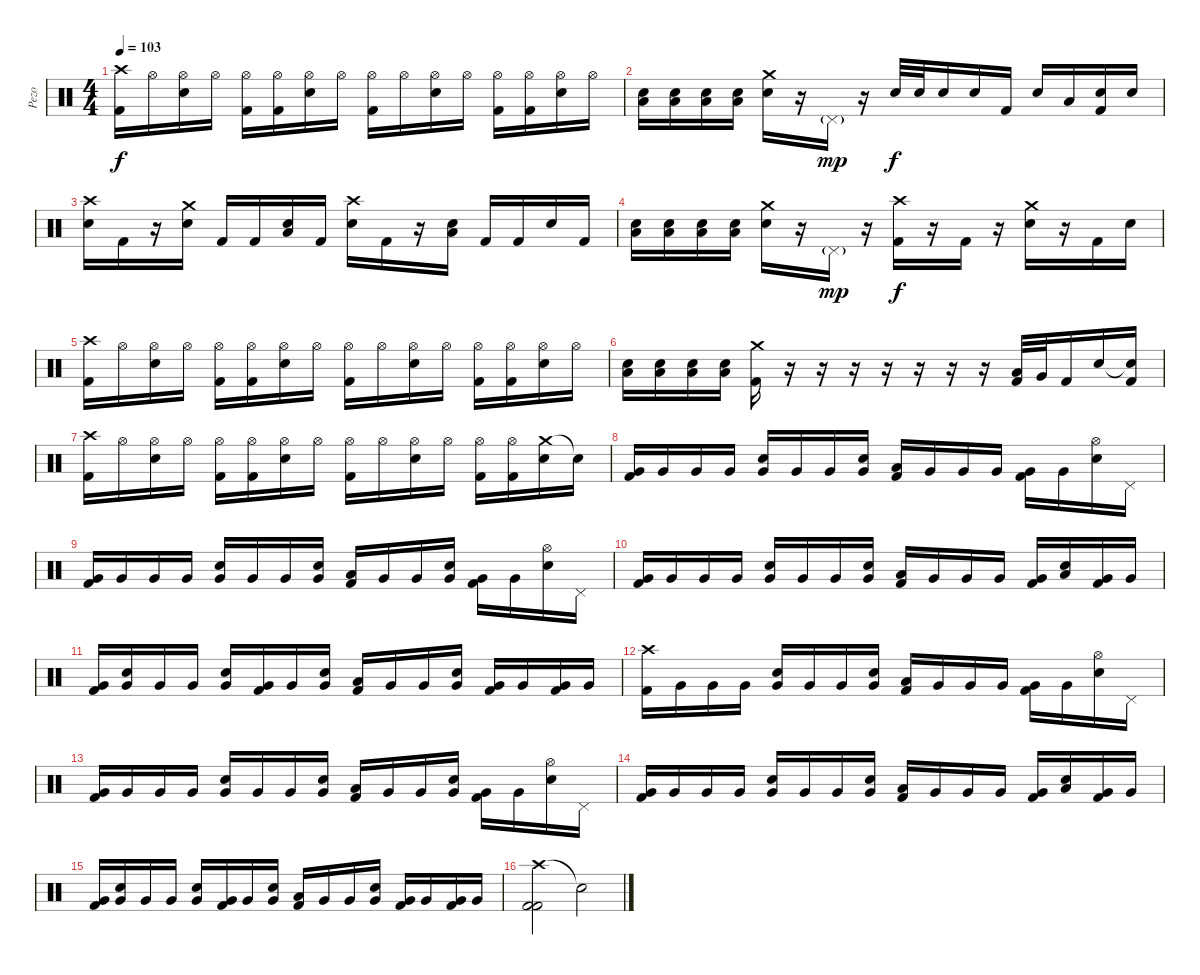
\track ("Pezo" "Pezo") {instrument percussion}
\staff {score}
\articulation defaults
\ts (4 4)
\tempo 103
\clef neutral
\ks c
("Crash high (hit)" "Kick (hit) 2").16{dy f} "Hi-Hat (open)".16 ("Hi-Hat (open)" "Electric Snare (hit)").16 "Hi-Hat (open)".16 ("Hi-Hat (open)" "Kick (hit) 2").16 ("Hi-Hat (open)" "Kick (hit) 2").16 ("Hi-Hat (open)" "Electric Snare (hit)").16 "Hi-Hat (open)".16 ("Hi-Hat (open)" "Kick (hit) 2").16 "Hi-Hat (open)".16 ("Hi-Hat (open)" "Electric Snare (hit)").16 "Hi-Hat (open)".16 ("Hi-Hat (open)" "Kick (hit) 2").16 ("Hi-Hat (open)" "Kick (hit) 2").16 ("Hi-Hat (open)" "Electric Snare (hit)").16 "Hi-Hat (open)".16 |
("Low Floor Tom (hit)" "Electric Snare (hit)").16 ("Low Floor Tom (hit)" "Electric Snare (hit)").16 ("Low Floor Tom (hit)" "Electric Snare (hit)").16 ("Low Floor Tom (hit)" "Electric Snare (hit)").16 ("Crash medium (hit)" "Electric Snare (hit)").16 r.16 "Pedal Hi-Hat (hit)"{g}.16{dy mp} r.16 "Electric Snare (hit)".32{dy f} "Electric Snare (hit)".32 "Electric Snare (hit)".16 "Electric Snare (hit)".16 "Kick (hit) 2".16 "Electric Snare (hit)".16 "Low Tom (hit)".16 ("Electric Snare (hit)" "Kick (hit) 2").16 "Electric Snare (hit)".16 |
("Crash high (hit)" "Electric Snare (hit)").16 "Kick (hit) 2".16 r.16 ("Crash medium (hit)" "Electric Snare (hit)").16 "Kick (hit) 2".16 "Kick (hit) 2".16 ("Low Floor Tom (hit)" "Electric Snare (hit)").16 "Kick (hit) 2".16 ("Crash high (hit)" "Electric Snare (hit)").16 "Kick (hit) 2".16 r.16 ("Low Floor Tom (hit)" "Electric Snare (hit)").16 "Kick (hit) 2".16 "Kick (hit) 2".16 "Electric Snare (hit)".16 "Kick (hit) 2".16 |
("Low Floor Tom (hit)" "Electric Snare (hit)").16 ("Low Floor Tom (hit)" "Electric Snare (hit)").16 ("Low Floor Tom (hit)" "Electric Snare (hit)").16 ("Low Floor Tom (hit)" "Electric Snare (hit)").16 ("Crash medium (hit)" "Electric Snare (hit)").16 r.16 "Pedal Hi-Hat (hit)"{g}.16{dy mp} r.16 ("Crash high (hit)" "Kick (hit) 2").16{dy f} r.16 "Kick (hit) 2".16 r.16 ("Crash medium (hit)" "Electric Snare (hit)").16 r.16 "Kick (hit) 2".16 "Electric Snare (hit)".16 |
("Crash high (hit)" "Kick (hit) 2").16 "Hi-Hat (open)".16 ("Hi-Hat (open)" "Electric Snare (hit)").16 "Hi-Hat (open)".16 ("Hi-Hat (open)" "Kick (hit) 2").16 ("Hi-Hat (open)" "Kick (hit) 2").16 ("Hi-Hat (open)" "Electric Snare (hit)").16 "Hi-Hat (open)".16 ("Hi-Hat (open)" "Kick (hit) 2").16 "Hi-Hat (open)".16 ("Hi-Hat (open)" "Electric Snare (hit)").16 "Hi-Hat (open)".16 ("Hi-Hat (open)" "Kick (hit) 2").16 ("Hi-Hat (open)" "Kick (hit) 2").16 ("Hi-Hat (open)" "Electric Snare (hit)").16 "Hi-Hat (open)".16 |
("Low Floor Tom (hit)" "Electric Snare (hit)").16 ("Low Floor Tom (hit)" "Electric Snare (hit)").16 ("Low Floor Tom (hit)" "Electric Snare (hit)").16 ("Low Floor Tom (hit)" "Electric Snare (hit)").16 ("Crash medium (hit)" "Kick (hit) 2").16 r.16 r.16 r.16 r.16 r.16 r.16 r.16 ("Low Tom (hit)" "Kick (hit) 2").32 "Very Low Tom (hit)".32 "Kick (hit) 2".16 "Electric Snare (hit)".16 ("Snare (hit)"{t} "Kick (hit) 2").16 |
("Crash high (hit)" "Kick (hit) 2").16 "Hi-Hat (open)".16 ("Hi-Hat (open)" "Electric Snare (hit)").16 "Hi-Hat (open)".16 ("Hi-Hat (open)" "Kick (hit) 2").16 ("Hi-Hat (open)" "Kick (hit) 2").16 ("Hi-Hat (open)" "Electric Snare (hit)").16 "Hi-Hat (open)".16 ("Hi-Hat (open)" "Kick (hit) 2").16 "Hi-Hat (open)".16 ("Hi-Hat (open)" "Electric Snare (hit)").16 "Hi-Hat (open)".16 ("Hi-Hat (open)" "Kick (hit) 2").16 ("Hi-Hat (open)" "Kick (hit) 2").16 ("Crash medium (hit)" "Electric Snare (hit)").16 "Snare (hit)"{t}.16 |
("Very Low Tom (hit)" "Kick (hit) 2").16 "Very Low Tom (hit)".16 "Very Low Tom (hit)".16 "Very Low Tom (hit)".16 ("Very Low Tom (hit)" "Electric Snare (hit)").16 "Very Low Tom (hit)".16 "Very Low Tom (hit)".16 ("Very Low Tom (hit)" "Electric Snare (hit)").16 ("Low Tom (hit)" "Kick (hit) 2").16 "Very Low Tom (hit)".16 "Very Low Tom (hit)".16 "Very Low Tom (hit)".16 ("Very Low Tom (hit)" "Kick (hit) 2").16 "Very Low Tom (hit)".16 ("Hi-Hat (open)" "Electric Snare (hit)").16 "Pedal Hi-Hat (hit)".16 |
("Very Low Tom (hit)" "Kick (hit) 2").16 "Very Low Tom (hit)".16 "Very Low Tom (hit)".16 "Very Low Tom (hit)".16 ("Very Low Tom (hit)" "Electric Snare (hit)").16 "Very Low Tom (hit)".16 "Very Low Tom (hit)".16 ("Very Low Tom (hit)" "Electric Snare (hit)").16 ("Low Tom (hit)" "Kick (hit) 2").16 "Very Low Tom (hit)".16 "Very Low Tom (hit)".16 ("Very Low Tom (hit)" "Electric Snare (hit)").16 ("Very Low Tom (hit)" "Kick (hit) 2").16 "Very Low Tom (hit)".16 ("Hi-Hat (open)" "Electric Snare (hit)").16 "Pedal Hi-Hat (hit)".16 |
("Very Low Tom (hit)" "Kick (hit) 2").16 "Very Low Tom (hit)".16 "Very Low Tom (hit)".16 "Very Low Tom (hit)".16 ("Very Low Tom (hit)" "Electric Snare (hit)").16 "Very Low Tom (hit)".16 "Very Low Tom (hit)".16 ("Very Low Tom (hit)" "Electric Snare (hit)").16 ("Low Tom (hit)" "Kick (hit) 2").16 "Very Low Tom (hit)".16 "Very Low Tom (hit)".16 "Very Low Tom (hit)".16 ("Very Low Tom (hit)" "Kick (hit) 2").16 ("Low Tom (hit)" "Electric Snare (hit)").16 ("Very Low Tom (hit)" "Kick (hit) 2").16 "Very Low Tom (hit)".16 |
("Very Low Tom (hit)" "Kick (hit) 2").16 ("Very Low Tom (hit)" "Electric Snare (hit)").16 "Very Low Tom (hit)".16 "Very Low Tom (hit)".16 ("Very Low Tom (hit)" "Electric Snare (hit)").16 ("Very Low Tom (hit)" "Kick (hit) 2").16 "Very Low Tom (hit)".16 ("Very Low Tom (hit)" "Electric Snare (hit)").16 ("Low Tom (hit)" "Kick (hit) 2").16 "Very Low Tom (hit)".16 "Very Low Tom (hit)".16 ("Very Low Tom (hit)" "Electric Snare (hit)").16 ("Very Low Tom (hit)" "Kick (hit) 2").16 "Very Low Tom (hit)".16 ("Very Low Tom (hit)" "Kick (hit) 2").16 "Very Low Tom (hit)".16 |
("Crash high (hit)" "Kick (hit) 2").16 "Very Low Tom (hit)".16 "Very Low Tom (hit)".16 "Very Low Tom (hit)".16 ("Very Low Tom (hit)" "Electric Snare (hit)").16 "Very Low Tom (hit)".16 "Very Low Tom (hit)".16 ("Very Low Tom (hit)" "Electric Snare (hit)").16 ("Low Tom (hit)" "Kick (hit) 2").16 "Very Low Tom (hit)".16 "Very Low Tom (hit)".16 "Very Low Tom (hit)".16 ("Very Low Tom (hit)" "Kick (hit) 2").16 "Very Low Tom (hit)".16 ("Hi-Hat (open)" "Electric Snare (hit)").16 "Pedal Hi-Hat (hit)".16 |
("Very Low Tom (hit)" "Kick (hit) 2").16 "Very Low Tom (hit)".16 "Very Low Tom (hit)".16 "Very Low Tom (hit)".16 ("Very Low Tom (hit)" "Electric Snare (hit)").16 "Very Low Tom (hit)".16 "Very Low Tom (hit)".16 ("Very Low Tom (hit)" "Electric Snare (hit)").16 ("Low Tom (hit)" "Kick (hit) 2").16 "Very Low Tom (hit)".16 "Very Low Tom (hit)".16 ("Very Low Tom (hit)" "Electric Snare (hit)").16 ("Very Low Tom (hit)" "Kick (hit) 2").16 "Very Low Tom (hit)".16 ("Hi-Hat (open)" "Electric Snare (hit)").16 "Pedal Hi-Hat (hit)".16 |
("Very Low Tom (hit)" "Kick (hit) 2").16 "Very Low Tom (hit)".16 "Very Low Tom (hit)".16 "Very Low Tom (hit)".16 ("Very Low Tom (hit)" "Electric Snare (hit)").16 "Very Low Tom (hit)".16 "Very Low Tom (hit)".16 ("Very Low Tom (hit)" "Electric Snare (hit)").16 ("Low Tom (hit)" "Kick (hit) 2").16 "Very Low Tom (hit)".16 "Very Low Tom (hit)".16 "Very Low Tom (hit)".16 ("Very Low Tom (hit)" "Kick (hit) 2").16 ("Low Tom (hit)" "Electric Snare (hit)").16 ("Very Low Tom (hit)" "Kick (hit) 2").16 "Very Low Tom (hit)".16 |
("Very Low Tom (hit)" "Kick (hit) 2").16 ("Very Low Tom (hit)" "Electric Snare (hit)").16 "Very Low Tom (hit)".16 "Very Low Tom (hit)".16 ("Very Low Tom (hit)" "Electric Snare (hit)").16 ("Very Low Tom (hit)" "Kick (hit) 2").16 "Very Low Tom (hit)".16 ("Very Low Tom (hit)" "Electric Snare (hit)").16 ("Low Tom (hit)" "Kick (hit) 2").16 "Very Low Tom (hit)".16 "Very Low Tom (hit)".16 ("Very Low Tom (hit)" "Electric Snare (hit)").16 ("Very Low Tom (hit)" "Kick (hit) 2").16 "Very Low Tom (hit)".16 ("Very Low Tom (hit)" "Kick (hit) 2").16 "Very Low Tom (hit)".16 |
("Crash high (hit)" "Kick (hit) 2" "Kick (hit) 2").2 "Snare (hit)"{t}.2
